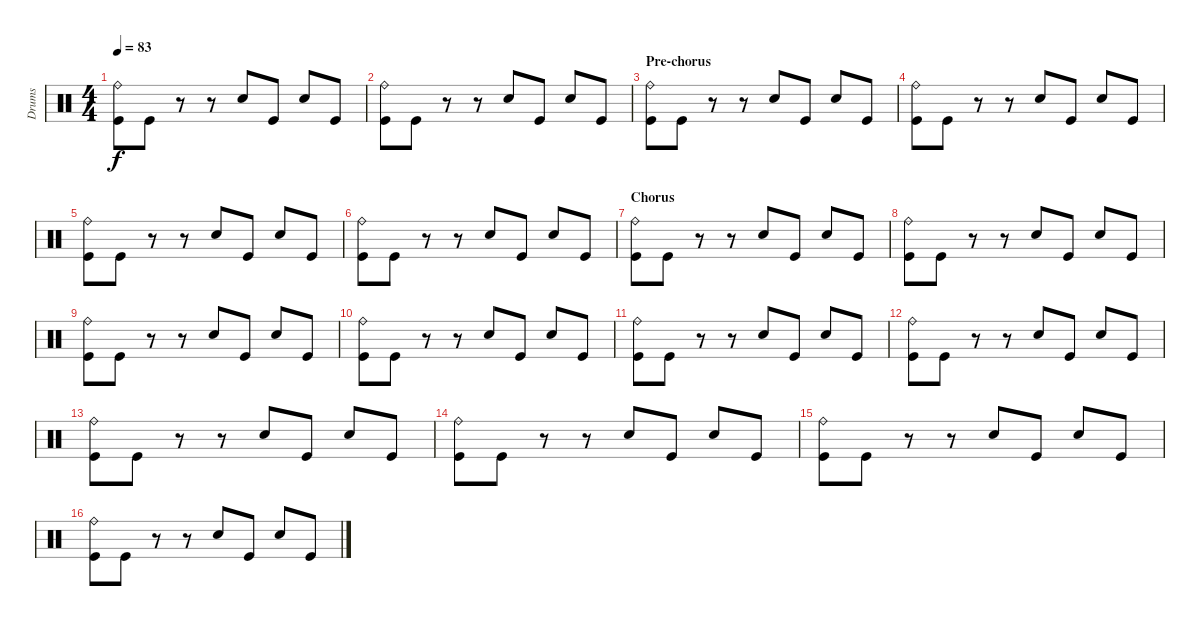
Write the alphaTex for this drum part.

\track ("Drums" "Drums") {instrument percussion}
\staff {score}
\articulation defaults
\ts (4 4)
\tempo 83
\clef neutral
\ks c
("Ride (bell)" "Kick (hit)").8{dy f} "Kick (hit)".8 r.8 r.8 "Hand Clap (hit)".8 "Kick (hit)".8 "Hand Clap (hit)".8 "Kick (hit)".8 |
("Ride (bell)" "Kick (hit)").8 "Kick (hit)".8 r.8 r.8 "Hand Clap (hit)".8 "Kick (hit)".8 "Hand Clap (hit)".8 "Kick (hit)".8 |
\section ("" "Pre-chorus")
("Ride (bell)" "Kick (hit)").8 "Kick (hit)".8 r.8 r.8 "Hand Clap (hit)".8 "Kick (hit)".8 "Hand Clap (hit)".8 "Kick (hit)".8 |
("Ride (bell)" "Kick (hit)").8 "Kick (hit)".8 r.8 r.8 "Hand Clap (hit)".8 "Kick (hit)".8 "Hand Clap (hit)".8 "Kick (hit)".8 |
("Ride (bell)" "Kick (hit)").8 "Kick (hit)".8 r.8 r.8 "Hand Clap (hit)".8 "Kick (hit)".8 "Hand Clap (hit)".8 "Kick (hit)".8 |
("Ride (bell)" "Kick (hit)").8 "Kick (hit)".8 r.8 r.8 "Hand Clap (hit)".8 "Kick (hit)".8 "Hand Clap (hit)".8 "Kick (hit)".8 |
\section ("" "Chorus")
("Ride (bell)" "Kick (hit)").8 "Kick (hit)".8 r.8 r.8 "Hand Clap (hit)".8 "Kick (hit)".8 "Hand Clap (hit)".8 "Kick (hit)".8 |
("Ride (bell)" "Kick (hit)").8 "Kick (hit)".8 r.8 r.8 "Hand Clap (hit)".8 "Kick (hit)".8 "Hand Clap (hit)".8 "Kick (hit)".8 |
("Ride (bell)" "Kick (hit)").8 "Kick (hit)".8 r.8 r.8 "Hand Clap (hit)".8 "Kick (hit)".8 "Hand Clap (hit)".8 "Kick (hit)".8 |
("Ride (bell)" "Kick (hit)").8 "Kick (hit)".8 r.8 r.8 "Hand Clap (hit)".8 "Kick (hit)".8 "Hand Clap (hit)".8 "Kick (hit)".8 |
("Ride (bell)" "Kick (hit)").8 "Kick (hit)".8 r.8 r.8 "Hand Clap (hit)".8 "Kick (hit)".8 "Hand Clap (hit)".8 "Kick (hit)".8 |
("Ride (bell)" "Kick (hit)").8 "Kick (hit)".8 r.8 r.8 "Hand Clap (hit)".8 "Kick (hit)".8 "Hand Clap (hit)".8 "Kick (hit)".8 |
("Ride (bell)" "Kick (hit)").8 "Kick (hit)".8 r.8 r.8 "Hand Clap (hit)".8 "Kick (hit)".8 "Hand Clap (hit)".8 "Kick (hit)".8 |
("Ride (bell)" "Kick (hit)").8 "Kick (hit)".8 r.8 r.8 "Hand Clap (hit)".8 "Kick (hit)".8 "Hand Clap (hit)".8 "Kick (hit)".8 |
("Ride (bell)" "Kick (hit)").8 "Kick (hit)".8 r.8 r.8 "Hand Clap (hit)".8 "Kick (hit)".8 "Hand Clap (hit)".8 "Kick (hit)".8 |
("Ride (bell)" "Kick (hit)").8 "Kick (hit)".8 r.8 r.8 "Hand Clap (hit)".8 "Kick (hit)".8 "Hand Clap (hit)".8 "Kick (hit)".8
